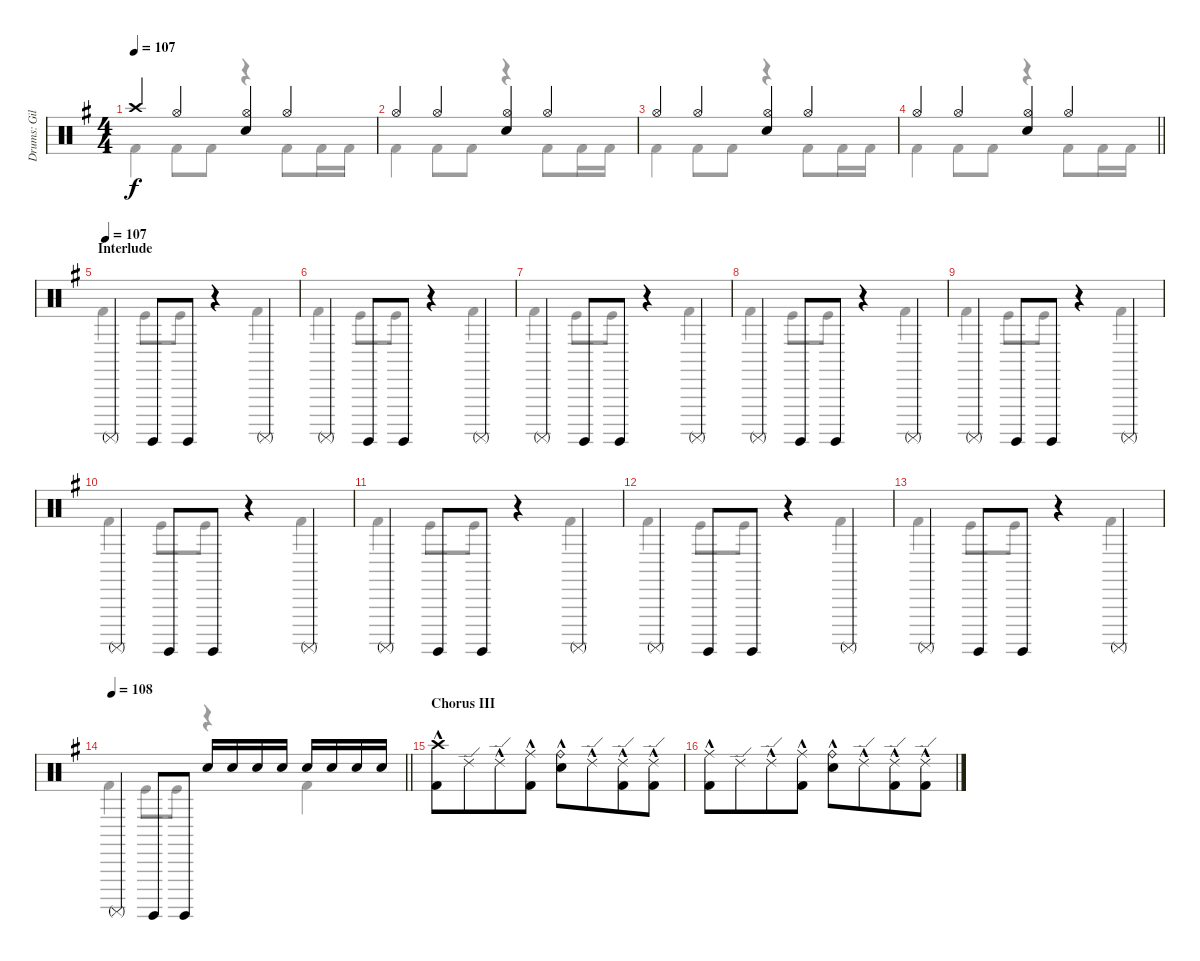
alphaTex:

\track ("Drums: Gil" "Drums: Gil") {instrument percussion}
\staff {score}
\articulation defaults
\voice
\ts (4 4)
\tempo 107
\clef neutral
\ks g "Crash high (hit)".4{dy f} "Hi-Hat (open)".4
("Hi-Hat (open)" "Snare (hit) 2").4 "Hi-Hat (open)".4 |
"Hi-Hat (open)".4 "Hi-Hat (open)".4 ("Hi-Hat (open)" "Snare (hit) 2").4 "Hi-Hat (open)".4 |
"Hi-Hat (open)".4 "Hi-Hat (open)".4 ("Hi-Hat (open)" "Snare (hit) 2").4 "Hi-Hat (open)".4 |
\barLineRight lightlight "Hi-Hat (open)".4 "Hi-Hat (open)".4
("Hi-Hat (open)" "Snare (hit) 2").4 "Hi-Hat (open)".4 |
\section ("" "Interlude")
\tempo (107)
"Surdo (mute)".4 "Surdo (hit)".8 "Surdo (hit)".8 r.4 "Surdo (mute)".4 |
"Surdo (mute)".4 "Surdo (hit)".8 "Surdo (hit)".8 r.4 "Surdo (mute)".4 |
"Surdo (mute)".4 "Surdo (hit)".8 "Surdo (hit)".8 r.4 "Surdo (mute)".4 |
"Surdo (mute)".4 "Surdo (hit)".8 "Surdo (hit)".8 r.4 "Surdo (mute)".4 |
"Surdo (mute)".4 "Surdo (hit)".8 "Surdo (hit)".8 r.4 "Surdo (mute)".4 |
"Surdo (mute)".4 "Surdo (hit)".8 "Surdo (hit)".8 r.4 "Surdo (mute)".4 |
"Surdo (mute)".4 "Surdo (hit)".8 "Surdo (hit)".8 r.4 "Surdo (mute)".4 |
"Surdo (mute)".4 "Surdo (hit)".8 "Surdo (hit)".8 r.4 "Surdo (mute)".4 |
"Surdo (mute)".4 "Surdo (hit)".8 "Surdo (hit)".8 r.4 "Surdo (mute)".4 |
\tempo 108
\barLineRight lightlight "Surdo (mute)".4 "Surdo (hit)".8 "Surdo (hit)".8 "Snare (hit) 2".16 "Snare (hit) 2".16 "Snare (hit) 2".16 "Snare (hit) 2".16 "Snare (hit) 2".16 "Snare (hit) 2".16 "Snare (hit) 2".16 "Snare (hit) 2".16
|
\section ("" "Chorus III")
("Crash high (hit)"{hac} "Kick (hit) 2"{hac}).8 "Ride (edge) 2".8{beam merge} "Ride (edge) 2"{hac}.8{beam merge} ("Ride (middle)"{hac} "Kick (hit) 2").8{beam split} ("Ride (bell)"{hac} "Snare (hit) 2"{hac}).8 "Ride (edge) 2"{hac}.8{beam merge} ("Ride (edge) 2"{hac} "Kick (hit) 2"{hac}).8{beam merge} ("Ride (edge) 2"{hac} "Kick (hit) 2"{hac}).8 |
("Ride (middle)"{hac} "Kick (hit) 2"{hac}).8 "Ride (edge) 2".8{beam merge} "Ride (edge) 2"{hac}.8{beam merge} ("Ride (middle)"{hac} "Kick (hit) 2").8{beam split} ("Ride (bell)"{hac} "Snare (hit) 2"{hac}).8 "Ride (edge) 2"{hac}.8{beam merge} ("Ride (edge) 2"{hac} "Kick (hit) 2"{hac}).8{beam merge} ("Ride (edge) 2"{hac} "Kick (hit) 2"{hac}).8
\voice
\clef neutral
\ottava regular
\simile none
\ks g "Kick (hit) 2".4{dy f} "Kick (hit) 2".8 "Kick (hit) 2".8
r.4 "Kick (hit) 2".8 "Kick (hit) 2".16 "Kick (hit) 2".16 |
"Kick (hit) 2".4 "Kick (hit) 2".8 "Kick (hit) 2".8 r.4 "Kick (hit) 2".8 "Kick (hit) 2".16 "Kick (hit) 2".16 |
"Kick (hit) 2".4 "Kick (hit) 2".8 "Kick (hit) 2".8 r.4 "Kick (hit) 2".8 "Kick (hit) 2".16 "Kick (hit) 2".16 |
\barLineRight lightlight "Kick (hit) 2".4 "Kick (hit) 2".8 "Kick (hit) 2".8
r.4 "Kick (hit) 2".8 "Kick (hit) 2".16 "Kick (hit) 2".16 |
"Kick (hit) 2".4 "Kick (hit)".8 "Kick (hit)".8 r.4 "Kick (hit) 2".4 |
"Kick (hit) 2".4 "Kick (hit)".8 "Kick (hit)".8 r.4 "Kick (hit) 2".4 |
"Kick (hit) 2".4 "Kick (hit)".8 "Kick (hit)".8 r.4 "Kick (hit) 2".4 |
"Kick (hit) 2".4 "Kick (hit)".8 "Kick (hit)".8 r.4 "Kick (hit) 2".4 |
"Kick (hit) 2".4 "Kick (hit)".8 "Kick (hit)".8 r.4 "Kick (hit) 2".4 |
"Kick (hit) 2".4 "Kick (hit)".8 "Kick (hit)".8 r.4 "Kick (hit) 2".4 |
"Kick (hit) 2".4 "Kick (hit)".8 "Kick (hit)".8 r.4 "Kick (hit) 2".4 |
"Kick (hit) 2".4 "Kick (hit)".8 "Kick (hit)".8 r.4 "Kick (hit) 2".4 |
"Kick (hit) 2".4 "Kick (hit)".8 "Kick (hit)".8 r.4 "Kick (hit) 2".4 |
\barLineRight lightlight "Kick (hit) 2".4 "Kick (hit)".8 "Kick (hit)".8
r.4 "Kick (hit) 2".4 |
|
